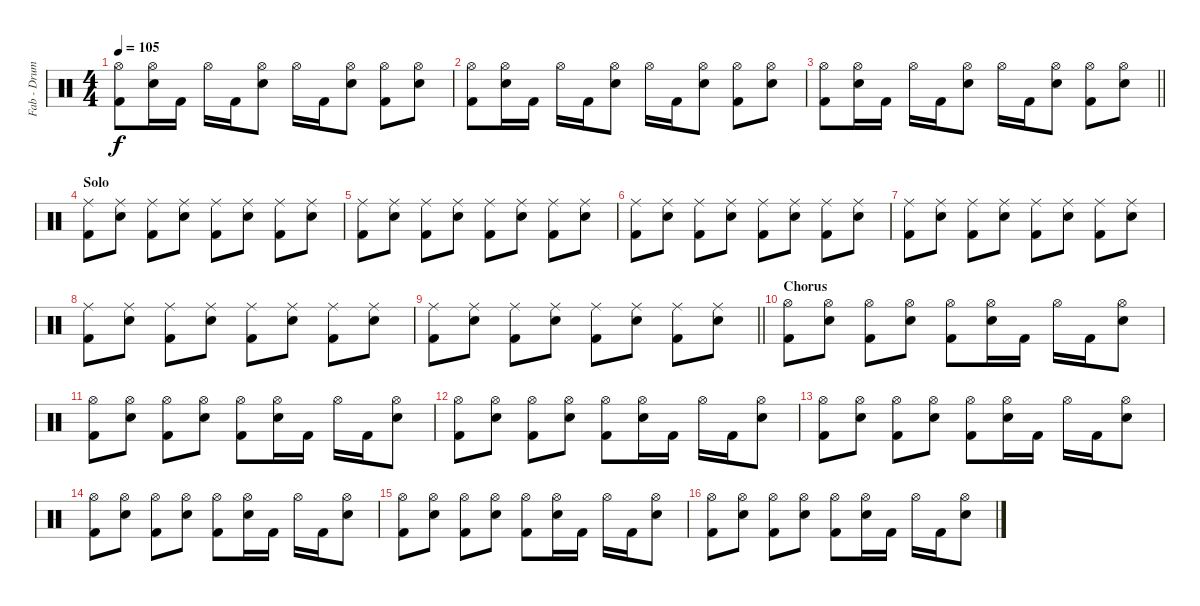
\track ("Fab - Drums MIDI" "Fab - Drum") {instrument percussion}
\staff {score}
\articulation defaults
\ts (4 4)
\tempo 105
\clef neutral
\ks c
("Hi-Hat (open)" "Kick (hit) 2").8{dy f} ("Hi-Hat (open)" "Snare (hit) 2").16 "Kick (hit) 2".16 "Hi-Hat (open)".16 "Kick (hit) 2".16 ("Hi-Hat (open)" "Snare (hit) 2").8 "Hi-Hat (open)".16 "Kick (hit) 2".16 ("Hi-Hat (open)" "Snare (hit) 2").8 ("Hi-Hat (open)" "Kick (hit) 2").8 ("Hi-Hat (open)" "Snare (hit) 2").8 |
("Hi-Hat (open)" "Kick (hit) 2").8 ("Hi-Hat (open)" "Snare (hit) 2").16 "Kick (hit) 2".16 "Hi-Hat (open)".16 "Kick (hit) 2".16 ("Hi-Hat (open)" "Snare (hit) 2").8 "Hi-Hat (open)".16 "Kick (hit) 2".16 ("Hi-Hat (open)" "Snare (hit) 2").8 ("Hi-Hat (open)" "Kick (hit) 2").8 ("Hi-Hat (open)" "Snare (hit) 2").8 |
\barLineRight lightlight
("Hi-Hat (open)" "Kick (hit) 2").8 ("Hi-Hat (open)" "Snare (hit) 2").16 "Kick (hit) 2".16 "Hi-Hat (open)".16 "Kick (hit) 2".16 ("Hi-Hat (open)" "Snare (hit) 2").8 "Hi-Hat (open)".16 "Kick (hit) 2".16 ("Hi-Hat (open)" "Snare (hit) 2").8 ("Hi-Hat (open)" "Kick (hit) 2").8 ("Hi-Hat (open)" "Snare (hit) 2").8 |
\section ("" "Solo")
("Ride (middle)" "Kick (hit) 2").8 ("Ride (middle)" "Snare (hit) 2").8 ("Ride (middle)" "Kick (hit) 2").8 ("Ride (middle)" "Snare (hit) 2").8 ("Ride (middle)" "Kick (hit) 2").8 ("Ride (middle)" "Snare (hit) 2").8 ("Ride (middle)" "Kick (hit) 2").8 ("Ride (middle)" "Snare (hit) 2").8 |
("Ride (middle)" "Kick (hit) 2").8 ("Ride (middle)" "Snare (hit) 2").8 ("Ride (middle)" "Kick (hit) 2").8 ("Ride (middle)" "Snare (hit) 2").8 ("Ride (middle)" "Kick (hit) 2").8 ("Ride (middle)" "Snare (hit) 2").8 ("Ride (middle)" "Kick (hit) 2").8 ("Ride (middle)" "Snare (hit) 2").8 |
("Ride (middle)" "Kick (hit) 2").8 ("Ride (middle)" "Snare (hit) 2").8 ("Ride (middle)" "Kick (hit) 2").8 ("Ride (middle)" "Snare (hit) 2").8 ("Ride (middle)" "Kick (hit) 2").8 ("Ride (middle)" "Snare (hit) 2").8 ("Ride (middle)" "Kick (hit) 2").8 ("Ride (middle)" "Snare (hit) 2").8 |
("Ride (middle)" "Kick (hit) 2").8 ("Ride (middle)" "Snare (hit) 2").8 ("Ride (middle)" "Kick (hit) 2").8 ("Ride (middle)" "Snare (hit) 2").8 ("Ride (middle)" "Kick (hit) 2").8 ("Ride (middle)" "Snare (hit) 2").8 ("Ride (middle)" "Kick (hit) 2").8 ("Ride (middle)" "Snare (hit) 2").8 |
("Ride (middle)" "Kick (hit) 2").8 ("Ride (middle)" "Snare (hit) 2").8 ("Ride (middle)" "Kick (hit) 2").8 ("Ride (middle)" "Snare (hit) 2").8 ("Ride (middle)" "Kick (hit) 2").8 ("Ride (middle)" "Snare (hit) 2").8 ("Ride (middle)" "Kick (hit) 2").8 ("Ride (middle)" "Snare (hit) 2").8 |
\barLineRight lightlight
("Ride (middle)" "Kick (hit) 2").8 ("Ride (middle)" "Snare (hit) 2").8 ("Ride (middle)" "Kick (hit) 2").8 ("Ride (middle)" "Snare (hit) 2").8 ("Ride (middle)" "Kick (hit) 2").8 ("Ride (middle)" "Snare (hit) 2").8 ("Ride (middle)" "Kick (hit) 2").8 ("Ride (middle)" "Snare (hit) 2").8 |
\section ("" "Chorus")
("Hi-Hat (open)" "Kick (hit) 2").8 ("Hi-Hat (open)" "Snare (hit) 2").8 ("Hi-Hat (open)" "Kick (hit) 2").8 ("Hi-Hat (open)" "Snare (hit) 2").8 ("Hi-Hat (open)" "Kick (hit) 2").8 ("Hi-Hat (open)" "Snare (hit) 2").16 "Kick (hit) 2".16 "Hi-Hat (open)".16 "Kick (hit) 2".16 ("Hi-Hat (open)" "Snare (hit) 2").8 |
("Hi-Hat (open)" "Kick (hit) 2").8 ("Hi-Hat (open)" "Snare (hit) 2").8 ("Hi-Hat (open)" "Kick (hit) 2").8 ("Hi-Hat (open)" "Snare (hit) 2").8 ("Hi-Hat (open)" "Kick (hit) 2").8 ("Hi-Hat (open)" "Snare (hit) 2").16 "Kick (hit) 2".16 "Hi-Hat (open)".16 "Kick (hit) 2".16 ("Hi-Hat (open)" "Snare (hit) 2").8 |
("Hi-Hat (open)" "Kick (hit) 2").8 ("Hi-Hat (open)" "Snare (hit) 2").8 ("Hi-Hat (open)" "Kick (hit) 2").8 ("Hi-Hat (open)" "Snare (hit) 2").8 ("Hi-Hat (open)" "Kick (hit) 2").8 ("Hi-Hat (open)" "Snare (hit) 2").16 "Kick (hit) 2".16 "Hi-Hat (open)".16 "Kick (hit) 2".16 ("Hi-Hat (open)" "Snare (hit) 2").8 |
("Hi-Hat (open)" "Kick (hit) 2").8 ("Hi-Hat (open)" "Snare (hit) 2").8 ("Hi-Hat (open)" "Kick (hit) 2").8 ("Hi-Hat (open)" "Snare (hit) 2").8 ("Hi-Hat (open)" "Kick (hit) 2").8 ("Hi-Hat (open)" "Snare (hit) 2").16 "Kick (hit) 2".16 "Hi-Hat (open)".16 "Kick (hit) 2".16 ("Hi-Hat (open)" "Snare (hit) 2").8 |
("Hi-Hat (open)" "Kick (hit) 2").8 ("Hi-Hat (open)" "Snare (hit) 2").8 ("Hi-Hat (open)" "Kick (hit) 2").8 ("Hi-Hat (open)" "Snare (hit) 2").8 ("Hi-Hat (open)" "Kick (hit) 2").8 ("Hi-Hat (open)" "Snare (hit) 2").16 "Kick (hit) 2".16 "Hi-Hat (open)".16 "Kick (hit) 2".16 ("Hi-Hat (open)" "Snare (hit) 2").8 |
("Hi-Hat (open)" "Kick (hit) 2").8 ("Hi-Hat (open)" "Snare (hit) 2").8 ("Hi-Hat (open)" "Kick (hit) 2").8 ("Hi-Hat (open)" "Snare (hit) 2").8 ("Hi-Hat (open)" "Kick (hit) 2").8 ("Hi-Hat (open)" "Snare (hit) 2").16 "Kick (hit) 2".16 "Hi-Hat (open)".16 "Kick (hit) 2".16 ("Hi-Hat (open)" "Snare (hit) 2").8 |
("Hi-Hat (open)" "Kick (hit) 2").8 ("Hi-Hat (open)" "Snare (hit) 2").8 ("Hi-Hat (open)" "Kick (hit) 2").8 ("Hi-Hat (open)" "Snare (hit) 2").8 ("Hi-Hat (open)" "Kick (hit) 2").8 ("Hi-Hat (open)" "Snare (hit) 2").16 "Kick (hit) 2".16 "Hi-Hat (open)".16 "Kick (hit) 2".16 ("Hi-Hat (open)" "Snare (hit) 2").8
